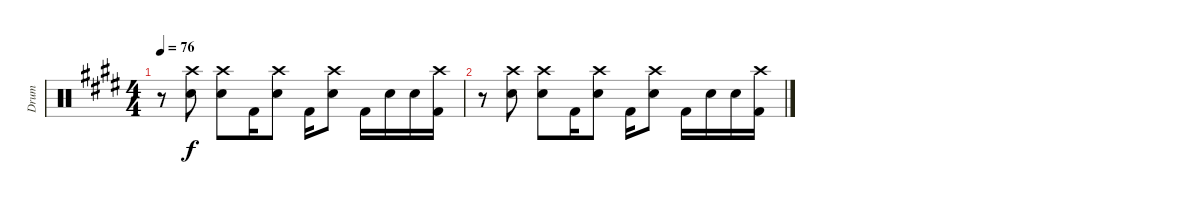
\track ("Drum" "Drum") {instrument percussion}
\staff {score}
\articulation defaults
\ts (4 4)
\tempo 76
\clef neutral
\ks e
r.8{dy f} ("Crash high (hit)" "Electric Snare (hit)").8 ("Crash high (hit)" "Electric Snare (hit)").8 "Kick (hit) 2".16 ("Crash high (hit)" "Electric Snare (hit)").8 "Kick (hit) 2".16 ("Crash high (hit)" "Electric Snare (hit)").8 "Kick (hit) 2".16 "Electric Snare (hit)".16 "Electric Snare (hit)".16 ("Crash high (hit)" "Kick (hit) 2").16 |
r.8 ("Crash high (hit)" "Electric Snare (hit)").8 ("Crash high (hit)" "Electric Snare (hit)").8 "Kick (hit) 2".16 ("Crash high (hit)" "Electric Snare (hit)").8 "Kick (hit) 2".16 ("Crash high (hit)" "Electric Snare (hit)").8 "Kick (hit) 2".16 "Electric Snare (hit)".16 "Electric Snare (hit)".16 ("Crash high (hit)" "Kick (hit) 2").16
